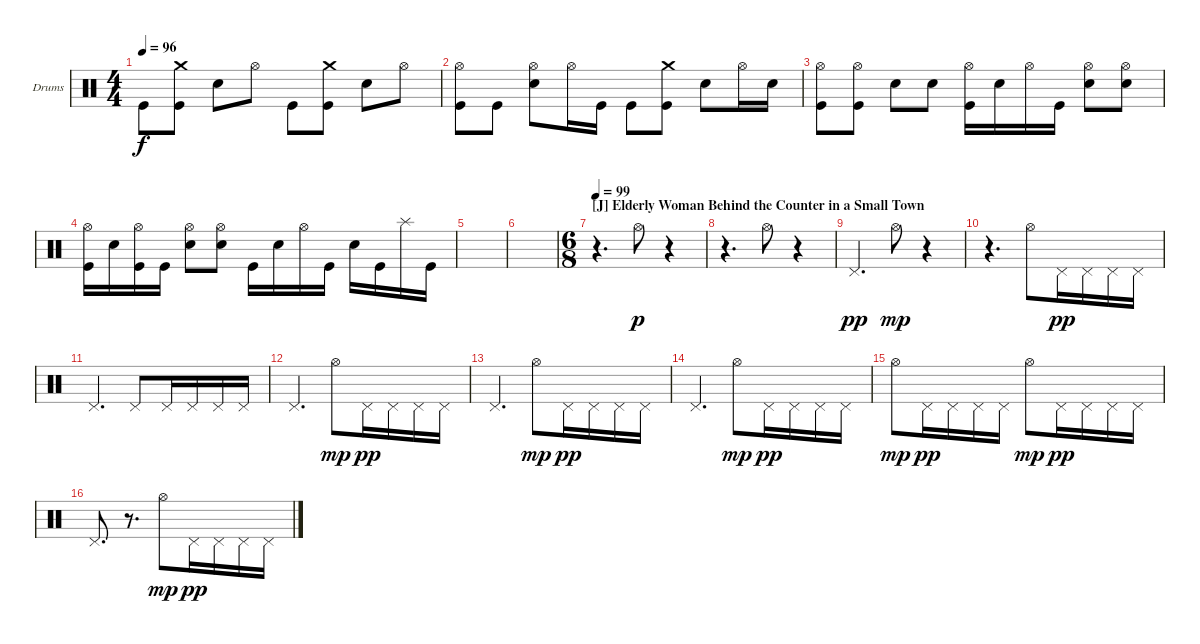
\defaultSystemsLayout 4
\bracketExtendMode nobrackets
\firstSystemTrackNameOrientation horizontal
\otherSystemsTrackNameOrientation horizontal
\track ("Dave Abbruzzese" "Drums") {solo instrument percussion}
\staff {score}
\articulation defaults
\ts (4 4)
\tempo 96
\clef neutral
\ks c "Kick (hit)".8{dy f}
("Crash medium (hit)" "Kick (hit)").8 "Snare (hit) 2".8 "Hi-Hat (open)".8 "Kick (hit)".8 ("Crash medium (hit)" "Kick (hit)").8 "Snare (hit) 2".8 "Hi-Hat (open)".8 |
("Hi-Hat (open)" "Kick (hit)").8 "Kick (hit)".8 ("Hi-Hat (open)" "Snare (hit) 2").8 "Hi-Hat (open)".16 "Kick (hit)".16 "Kick (hit)".8 ("Crash medium (hit)" "Kick (hit)").8 "Snare (hit) 2".8 "Hi-Hat (open)".16 "Snare (hit) 2".16 |
("Hi-Hat (open)" "Kick (hit)").8 ("Hi-Hat (open)" "Kick (hit)").8 "Snare (hit) 2".8 "Snare (hit) 2".8 ("Hi-Hat (open)" "Kick (hit)").16 "Snare (hit) 2".16 "Hi-Hat (open)".16 "Kick (hit)".16 ("Hi-Hat (open)" "Snare (hit) 2").8 ("Hi-Hat (open)" "Snare (hit) 2").8 |
("Hi-Hat (open)" "Kick (hit)").16 "Snare (hit) 2".16 ("Hi-Hat (open)" "Kick (hit)").16 "Kick (hit)".16 ("Hi-Hat (open)" "Snare (hit) 2").8 ("Hi-Hat (open)" "Snare (hit) 2").8 "Kick (hit)".16 "Snare (hit) 2".16 "Hi-Hat (open)".16 "Kick (hit)".16 "Snare (hit) 2".16 "Kick (hit)".16 "Splash (hit)".16 "Kick (hit)".16 |
|
|
\ts (6 8)
\section ("J" "Elderly Woman Behind the Counter in a Small Town")
\tempo 99
r.4{d} "Hi-Hat (open)".8{dy p} r.4 |
r.4{d} "Hi-Hat (open)".8 r.4 |
"Pedal Hi-Hat (hit)".4{d dy pp} "Hi-Hat (open)".8{dy mp} r.4 |
r.4{d} "Hi-Hat (open)".8 "Pedal Hi-Hat (hit)".16{dy pp} "Pedal Hi-Hat (hit)".16 "Pedal Hi-Hat (hit)".16 "Pedal Hi-Hat (hit)".16 |
"Pedal Hi-Hat (hit)".4{d} "Pedal Hi-Hat (hit)".8 "Pedal Hi-Hat (hit)".16 "Pedal Hi-Hat (hit)".16 "Pedal Hi-Hat (hit)".16 "Pedal Hi-Hat (hit)".16 |
"Pedal Hi-Hat (hit)".4{d} "Hi-Hat (open)".8{dy mp} "Pedal Hi-Hat (hit)".16{dy pp} "Pedal Hi-Hat (hit)".16 "Pedal Hi-Hat (hit)".16 "Pedal Hi-Hat (hit)".16 |
"Pedal Hi-Hat (hit)".4{d} "Hi-Hat (open)".8{dy mp} "Pedal Hi-Hat (hit)".16{dy pp} "Pedal Hi-Hat (hit)".16 "Pedal Hi-Hat (hit)".16 "Pedal Hi-Hat (hit)".16 |
"Pedal Hi-Hat (hit)".4{d} "Hi-Hat (open)".8{dy mp} "Pedal Hi-Hat (hit)".16{dy pp} "Pedal Hi-Hat (hit)".16 "Pedal Hi-Hat (hit)".16 "Pedal Hi-Hat (hit)".16 |
"Hi-Hat (open)".8{dy mp} "Pedal Hi-Hat (hit)".16{dy pp} "Pedal Hi-Hat (hit)".16 "Pedal Hi-Hat (hit)".16 "Pedal Hi-Hat (hit)".16 "Hi-Hat (open)".8{dy mp} "Pedal Hi-Hat (hit)".16{dy pp} "Pedal Hi-Hat (hit)".16 "Pedal Hi-Hat (hit)".16 "Pedal Hi-Hat (hit)".16 |
"Pedal Hi-Hat (hit)".8{d} r.8{d} "Hi-Hat (open)".8{dy mp} "Pedal Hi-Hat (hit)".16{dy pp} "Pedal Hi-Hat (hit)".16 "Pedal Hi-Hat (hit)".16 "Pedal Hi-Hat (hit)".16
